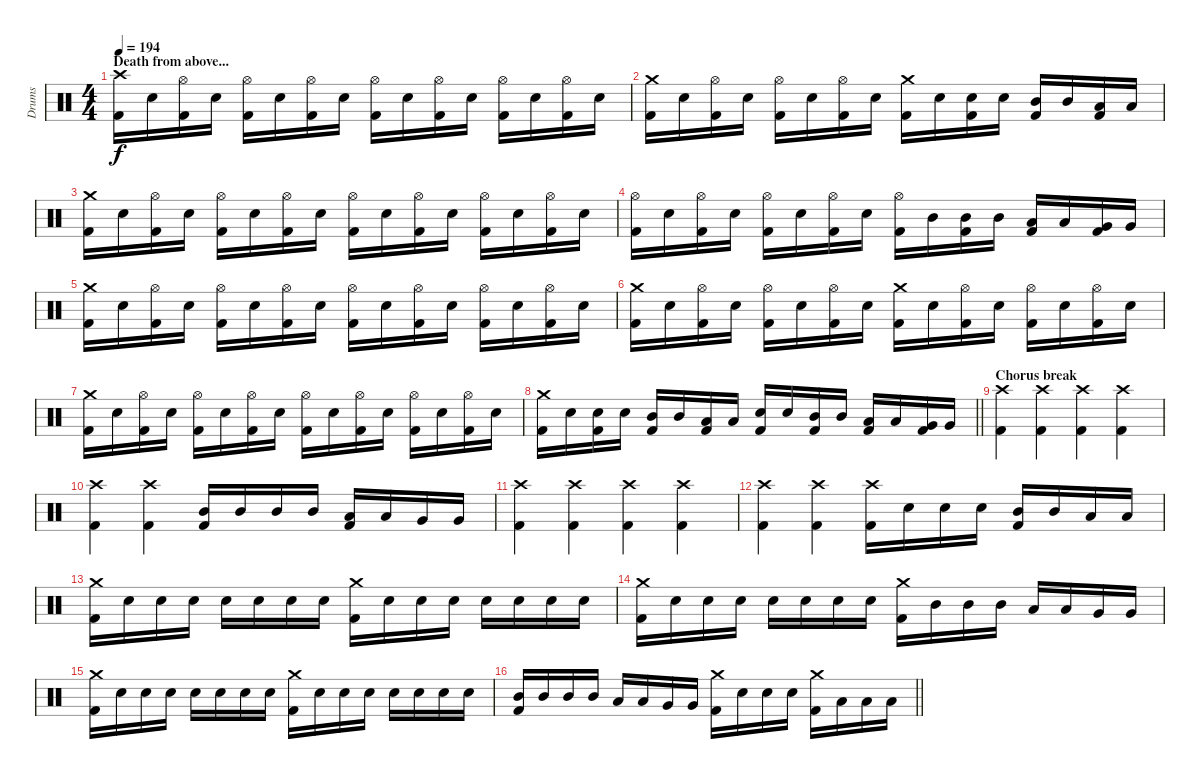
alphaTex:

\track ("Drums" "Drums") {instrument percussion}
\staff {score}
\articulation defaults
\ts (4 4)
\section ("" "Death from above...")
\tempo 194
\clef neutral
\ks c
("Crash high (hit)" "Kick (hit) 2").16{dy f} "Electric Snare (hit)".16 ("Hi-Hat (open)" "Kick (hit) 2").16 "Electric Snare (hit)".16 ("Hi-Hat (open)" "Kick (hit) 2").16 "Electric Snare (hit)".16 ("Hi-Hat (open)" "Kick (hit) 2").16 "Electric Snare (hit)".16 ("Hi-Hat (open)" "Kick (hit) 2").16 "Electric Snare (hit)".16 ("Hi-Hat (open)" "Kick (hit) 2").16 "Electric Snare (hit)".16 ("Hi-Hat (open)" "Kick (hit) 2").16 "Electric Snare (hit)".16 ("Hi-Hat (open)" "Kick (hit) 2").16 "Electric Snare (hit)".16 |
("Crash medium (hit)" "Kick (hit) 2").16 "Electric Snare (hit)".16 ("Hi-Hat (open)" "Kick (hit) 2").16 "Electric Snare (hit)".16 ("Hi-Hat (open)" "Kick (hit) 2").16 "Electric Snare (hit)".16 ("Hi-Hat (open)" "Kick (hit) 2").16 "Electric Snare (hit)".16 ("Crash medium (hit)" "Kick (hit) 2").16 "Electric Snare (hit)".16 ("Electric Snare (hit)" "Kick (hit) 2").16 "Electric Snare (hit)".16 ("Mid Tom (hit)" "Kick (hit) 2").16 "Mid Tom (hit)".16 ("Low Tom (hit)" "Kick (hit) 2").16 "Low Tom (hit)".16 |
("Crash medium (hit)" "Kick (hit) 2").16 "Electric Snare (hit)".16 ("Hi-Hat (open)" "Kick (hit) 2").16 "Electric Snare (hit)".16 ("Hi-Hat (open)" "Kick (hit) 2").16 "Electric Snare (hit)".16 ("Hi-Hat (open)" "Kick (hit) 2").16 "Electric Snare (hit)".16 ("Hi-Hat (open)" "Kick (hit) 2").16 "Electric Snare (hit)".16 ("Hi-Hat (open)" "Kick (hit) 2").16 "Electric Snare (hit)".16 ("Hi-Hat (open)" "Kick (hit) 2").16 "Electric Snare (hit)".16 ("Hi-Hat (open)" "Kick (hit) 2").16 "Electric Snare (hit)".16 |
("Hi-Hat (open)" "Kick (hit) 2").16 "Electric Snare (hit)".16 ("Hi-Hat (open)" "Kick (hit) 2").16 "Electric Snare (hit)".16 ("Hi-Hat (open)" "Kick (hit) 2").16 "Electric Snare (hit)".16 ("Hi-Hat (open)" "Kick (hit) 2").16 "Electric Snare (hit)".16 ("Hi-Hat (open)" "Kick (hit) 2").16 "Mid Tom (hit)".16 ("Mid Tom (hit)" "Kick (hit) 2").16 "Mid Tom (hit)".16 ("Low Tom (hit)" "Kick (hit) 2").16 "Low Tom (hit)".16 ("Very Low Tom (hit)" "Kick (hit) 2").16 "Very Low Tom (hit)".16 |
("Crash medium (hit)" "Kick (hit) 2").16 "Electric Snare (hit)".16 ("Hi-Hat (open)" "Kick (hit) 2").16 "Electric Snare (hit)".16 ("Hi-Hat (open)" "Kick (hit) 2").16 "Electric Snare (hit)".16 ("Hi-Hat (open)" "Kick (hit) 2").16 "Electric Snare (hit)".16 ("Hi-Hat (open)" "Kick (hit) 2").16 "Electric Snare (hit)".16 ("Hi-Hat (open)" "Kick (hit) 2").16 "Electric Snare (hit)".16 ("Hi-Hat (open)" "Kick (hit) 2").16 "Electric Snare (hit)".16 ("Hi-Hat (open)" "Kick (hit) 2").16 "Electric Snare (hit)".16 |
("Crash medium (hit)" "Kick (hit) 2").16 "Electric Snare (hit)".16 ("Hi-Hat (open)" "Kick (hit) 2").16 "Electric Snare (hit)".16 ("Hi-Hat (open)" "Kick (hit) 2").16 "Electric Snare (hit)".16 ("Hi-Hat (open)" "Kick (hit) 2").16 "Electric Snare (hit)".16 ("Crash medium (hit)" "Kick (hit) 2").16 "Electric Snare (hit)".16 ("Hi-Hat (open)" "Kick (hit) 2").16 "Electric Snare (hit)".16 ("Hi-Hat (open)" "Kick (hit) 2").16 "Electric Snare (hit)".16 ("Hi-Hat (open)" "Kick (hit) 2").16 "Electric Snare (hit)".16 |
("Crash medium (hit)" "Kick (hit) 2").16 "Electric Snare (hit)".16 ("Hi-Hat (open)" "Kick (hit) 2").16 "Electric Snare (hit)".16 ("Hi-Hat (open)" "Kick (hit) 2").16 "Electric Snare (hit)".16 ("Hi-Hat (open)" "Kick (hit) 2").16 "Electric Snare (hit)".16 ("Hi-Hat (open)" "Kick (hit) 2").16 "Electric Snare (hit)".16 ("Hi-Hat (open)" "Kick (hit) 2").16 "Electric Snare (hit)".16 ("Hi-Hat (open)" "Kick (hit) 2").16 "Electric Snare (hit)".16 ("Hi-Hat (open)" "Kick (hit) 2").16 "Electric Snare (hit)".16 |
\barLineRight lightlight
("Crash medium (hit)" "Kick (hit) 2").16 "Electric Snare (hit)".16 ("Electric Snare (hit)" "Kick (hit) 2").16 "Electric Snare (hit)".16 ("Mid Tom (hit)" "Kick (hit) 2").16 "Mid Tom (hit)".16 ("Low Tom (hit)" "Kick (hit) 2").16 "Low Tom (hit)".16 ("Electric Snare (hit)" "Kick (hit) 2").16 "Electric Snare (hit)".16 ("Mid Tom (hit)" "Kick (hit) 2").16 "Mid Tom (hit)".16 ("Low Tom (hit)" "Kick (hit) 2").16 "Low Tom (hit)".16 ("Very Low Tom (hit)" "Kick (hit) 2").16 "Very Low Tom (hit)".16 |
\section ("" "Chorus break")
("Crash high (hit)" "Kick (hit) 2").4 ("Crash high (hit)" "Kick (hit) 2").4 ("Crash high (hit)" "Kick (hit) 2").4 ("Crash high (hit)" "Kick (hit) 2").4 |
("Crash high (hit)" "Kick (hit) 2").4 ("Crash high (hit)" "Kick (hit) 2").4 ("Mid Tom (hit)" "Kick (hit) 2").16 "Mid Tom (hit)".16 "Mid Tom (hit)".16 "Mid Tom (hit)".16 ("Low Tom (hit)" "Kick (hit) 2").16 "Low Tom (hit)".16 "Very Low Tom (hit)".16 "Very Low Tom (hit)".16 |
("Crash high (hit)" "Kick (hit) 2").4 ("Crash high (hit)" "Kick (hit) 2").4 ("Crash high (hit)" "Kick (hit) 2").4 ("Crash high (hit)" "Kick (hit) 2").4 |
("Crash high (hit)" "Kick (hit) 2").4 ("Crash high (hit)" "Kick (hit) 2").4 ("Crash high (hit)" "Kick (hit) 2").16 "Electric Snare (hit)".16 "Electric Snare (hit)".16 "Electric Snare (hit)".16 ("Mid Tom (hit)" "Kick (hit) 2").16 "Mid Tom (hit)".16 "Low Tom (hit)".16 "Low Tom (hit)".16 |
("Crash medium (hit)" "Kick (hit) 2").16 "Electric Snare (hit)".16 "Electric Snare (hit)".16 "Electric Snare (hit)".16 "Electric Snare (hit)".16 "Electric Snare (hit)".16 "Electric Snare (hit)".16 "Electric Snare (hit)".16 ("Crash medium (hit)" "Kick (hit) 2").16 "Electric Snare (hit)".16 "Electric Snare (hit)".16 "Electric Snare (hit)".16 "Electric Snare (hit)".16 "Electric Snare (hit)".16 "Electric Snare (hit)".16 "Electric Snare (hit)".16 |
("Crash medium (hit)" "Kick (hit) 2").16 "Electric Snare (hit)".16 "Electric Snare (hit)".16 "Electric Snare (hit)".16 "Electric Snare (hit)".16 "Electric Snare (hit)".16 "Electric Snare (hit)".16 "Electric Snare (hit)".16 ("Crash medium (hit)" "Kick (hit) 2").16 "Mid Tom (hit)".16 "Mid Tom (hit)".16 "Mid Tom (hit)".16 "Low Tom (hit)".16 "Low Tom (hit)".16 "Very Low Tom (hit)".16 "Very Low Tom (hit)".16 |
("Crash medium (hit)" "Kick (hit) 2").16 "Electric Snare (hit)".16 "Electric Snare (hit)".16 "Electric Snare (hit)".16 "Electric Snare (hit)".16 "Electric Snare (hit)".16 "Electric Snare (hit)".16 "Electric Snare (hit)".16 ("Crash medium (hit)" "Kick (hit) 2").16 "Electric Snare (hit)".16 "Electric Snare (hit)".16 "Electric Snare (hit)".16 "Electric Snare (hit)".16 "Electric Snare (hit)".16 "Electric Snare (hit)".16 "Electric Snare (hit)".16 |
\barLineRight lightlight
("Mid Tom (hit)" "Kick (hit) 2").16 "Mid Tom (hit)".16 "Mid Tom (hit)".16 "Mid Tom (hit)".16 "Low Tom (hit)".16 "Low Tom (hit)".16 "Very Low Tom (hit)".16 "Very Low Tom (hit)".16 ("Crash medium (hit)" "Kick (hit) 2").16 "Electric Snare (hit)".16 "Electric Snare (hit)".16 "Electric Snare (hit)".16 ("Crash medium (hit)" "Kick (hit) 2").16 "Low Tom (hit)".16 "Low Tom (hit)".16 "Low Tom (hit)".16
